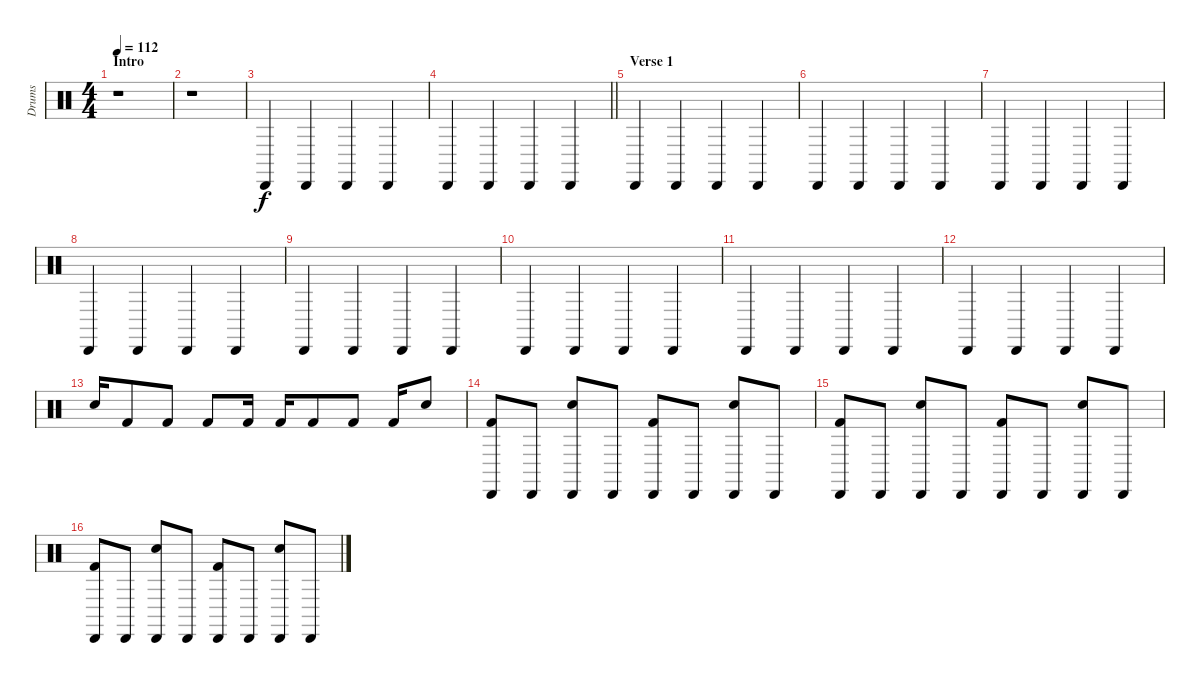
\track ("Drums" "Drums") {instrument percussion}
\staff {score}
\articulation defaults
\ts (4 4)
\section ("" "Intro")
\tempo 112
\clef neutral
\ks c
r.1{dy f} |
r.1 |
"Cabasa (hit)".4 "Cabasa (hit)".4 "Cabasa (hit)".4 "Cabasa (hit)".4 |
\barLineRight lightlight "Cabasa (hit)".4 "Cabasa (hit)".4 "Cabasa (hit)".4 "Cabasa (hit)".4
|
\section ("" "Verse 1")
"Cabasa (hit)".4 "Cabasa (hit)".4 "Cabasa (hit)".4 "Cabasa (hit)".4 |
"Cabasa (hit)".4 "Cabasa (hit)".4 "Cabasa (hit)".4 "Cabasa (hit)".4 |
"Cabasa (hit)".4 "Cabasa (hit)".4 "Cabasa (hit)".4 "Cabasa (hit)".4 |
"Cabasa (hit)".4 "Cabasa (hit)".4 "Cabasa (hit)".4 "Cabasa (hit)".4 |
"Cabasa (hit)".4 "Cabasa (hit)".4 "Cabasa (hit)".4 "Cabasa (hit)".4 |
"Cabasa (hit)".4 "Cabasa (hit)".4 "Cabasa (hit)".4 "Cabasa (hit)".4 |
"Cabasa (hit)".4 "Cabasa (hit)".4 "Cabasa (hit)".4 "Cabasa (hit)".4 |
"Cabasa (hit)".4 "Cabasa (hit)".4 "Cabasa (hit)".4 "Cabasa (hit)".4 |
"Snare (hit) 2".16 "Kick (hit) 2".8 "Kick (hit) 2".8 "Kick (hit) 2".8 "Kick (hit) 2".16 "Kick (hit) 2".16 "Kick (hit) 2".8 "Kick (hit) 2".8 "Kick (hit) 2".16 "Snare (hit) 2".8 |
("Kick (hit) 2" "Cabasa (hit)").8 "Cabasa (hit)".8 ("Snare (hit) 2" "Cabasa (hit)").8 "Cabasa (hit)".8 ("Kick (hit) 2" "Cabasa (hit)").8 "Cabasa (hit)".8 ("Snare (hit) 2" "Cabasa (hit)").8 "Cabasa (hit)".8 |
("Kick (hit) 2" "Cabasa (hit)").8 "Cabasa (hit)".8 ("Snare (hit) 2" "Cabasa (hit)").8 "Cabasa (hit)".8 ("Kick (hit) 2" "Cabasa (hit)").8 "Cabasa (hit)".8 ("Snare (hit) 2" "Cabasa (hit)").8 "Cabasa (hit)".8 |
("Kick (hit) 2" "Cabasa (hit)").8 "Cabasa (hit)".8 ("Snare (hit) 2" "Cabasa (hit)").8 "Cabasa (hit)".8 ("Kick (hit) 2" "Cabasa (hit)").8 "Cabasa (hit)".8 ("Snare (hit) 2" "Cabasa (hit)").8 "Cabasa (hit)".8
